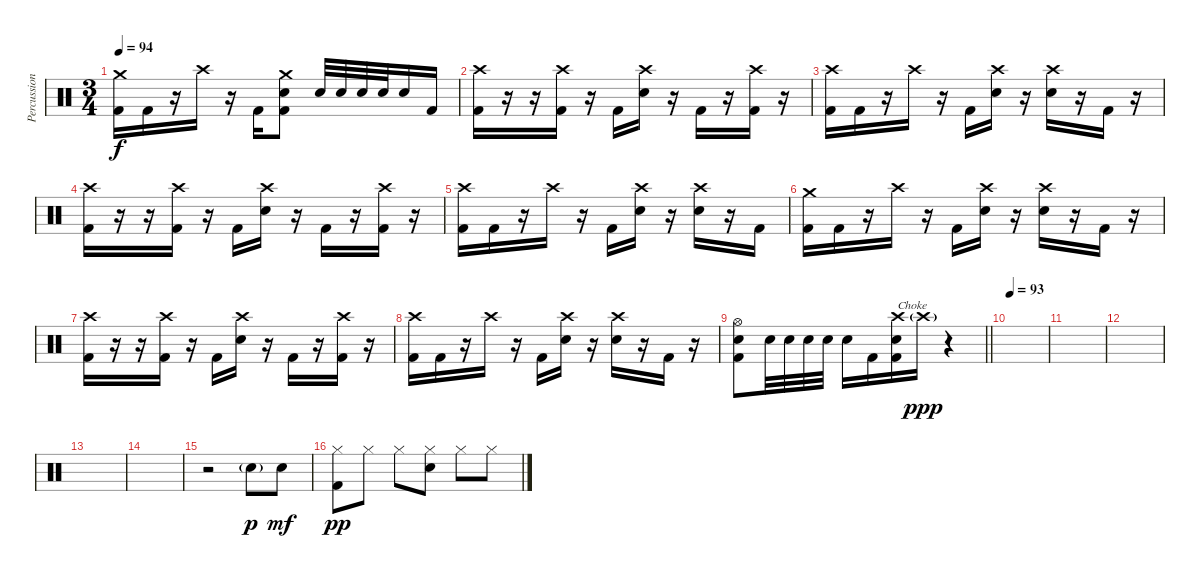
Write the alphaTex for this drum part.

\track ("Percussion" "Percussion") {instrument percussion}
\staff {score}
\articulation defaults
\ts (3 4)
\tempo 94
\clef neutral
\ks c
("Crash medium (hit)" "Kick (hit) 2").16{dy f} "Kick (hit) 2".16 r.16 "Crash high (hit)".16 r.16 "Kick (hit) 2".16 ("Crash medium (hit)" "Electric Snare (hit)" "Kick (hit) 2").8 "Electric Snare (hit)".32 "Electric Snare (hit)".32 "Electric Snare (hit)".32 "Electric Snare (hit)".32 "Electric Snare (hit)".16 "Kick (hit) 2".16 |
("Crash high (hit)" "Kick (hit) 2").16 r.16 r.16 ("Crash high (hit)" "Kick (hit) 2").16 r.16 "Kick (hit) 2".16 ("Crash high (hit)" "Electric Snare (hit)").16 r.16 "Kick (hit) 2".16 r.16 ("Crash high (hit)" "Kick (hit) 2").16 r.16 |
("Crash high (hit)" "Kick (hit) 2").16 "Kick (hit) 2".16 r.16 "Crash high (hit)".16 r.16 "Kick (hit) 2".16 ("Crash high (hit)" "Electric Snare (hit)").16 r.16 ("Crash high (hit)" "Electric Snare (hit)").16 r.16 "Kick (hit) 2".16 r.16 |
("Crash high (hit)" "Kick (hit) 2").16 r.16 r.16 ("Crash high (hit)" "Kick (hit) 2").16 r.16 "Kick (hit) 2".16 ("Crash high (hit)" "Electric Snare (hit)").16 r.16 "Kick (hit) 2".16 r.16 ("Crash high (hit)" "Kick (hit) 2").16 r.16 |
("Crash high (hit)" "Kick (hit) 2").16 "Kick (hit) 2".16 r.16 "Crash high (hit)".16 r.16 "Kick (hit) 2".16 ("Crash high (hit)" "Electric Snare (hit)").16 r.16 ("Crash high (hit)" "Electric Snare (hit)").16 r.16 "Kick (hit) 2".16 |
("Crash medium (hit)" "Kick (hit) 2").16 "Kick (hit) 2".16 r.16 "Crash high (hit)".16 r.16 "Kick (hit) 2".16 ("Crash high (hit)" "Electric Snare (hit)").16 r.16 ("Crash high (hit)" "Electric Snare (hit)").16 r.16 "Kick (hit) 2".16 r.16 |
("Crash high (hit)" "Kick (hit) 2").16 r.16 r.16 ("Crash high (hit)" "Kick (hit) 2").16 r.16 "Kick (hit) 2".16 ("Crash high (hit)" "Electric Snare (hit)").16 r.16 "Kick (hit) 2".16 r.16 ("Crash high (hit)" "Kick (hit) 2").16 r.16 |
("Crash high (hit)" "Kick (hit) 2").16 "Kick (hit) 2".16 r.16 "Crash high (hit)".16 r.16 "Kick (hit) 2".16 ("Crash high (hit)" "Electric Snare (hit)").16 r.16 ("Crash high (hit)" "Electric Snare (hit)").16 r.16 "Kick (hit) 2".16 r.16 |
\barLineRight lightlight
("Hi-Hat (open)" "Electric Snare (hit)" "Kick (hit) 2").8 "Electric Snare (hit)".32 "Electric Snare (hit)".32 "Electric Snare (hit)".32 "Electric Snare (hit)".32 "Electric Snare (hit)".16 "Kick (hit) 2".16 ("Crash high (hit)" "Electric Snare (hit)" "Kick (hit) 2").16{txt "Choke"} "Crash high (hit)"{g}.16{dy ppp} r.4 |
\section ("" "")
\tempo 93
|
|
|
|
|
r.2 "Snare (hit) 2"{g}.8{dy p} "Snare (hit) 2".8{dy mf} |
("Hi-Hat (closed)" "Kick (hit) 2").8{dy pp} "Hi-Hat (closed)".8 "Hi-Hat (closed)".8 ("Hi-Hat (closed)" "Snare (hit) 2").8 "Hi-Hat (closed)".8 "Hi-Hat (closed)".8
